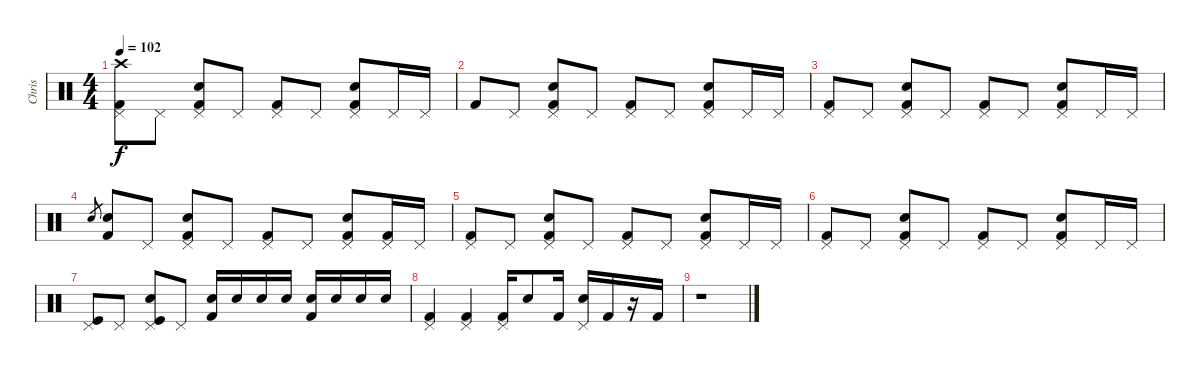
\track ("Chris" "Chris") {instrument percussion}
\staff {score}
\articulation defaults
\ts (4 4)
\tempo 102
\clef neutral
\ks c
("Crash high (hit)" "Pedal Hi-Hat (hit)" "Kick (hit) 2").8{dy f} "Pedal Hi-Hat (hit)".8 ("Pedal Hi-Hat (hit)" "Snare (hit) 2" "Kick (hit) 2").8 "Pedal Hi-Hat (hit)".8 ("Pedal Hi-Hat (hit)" "Kick (hit) 2").8 "Pedal Hi-Hat (hit)".8 ("Pedal Hi-Hat (hit)" "Snare (hit) 2" "Kick (hit) 2").8 "Pedal Hi-Hat (hit)".16 "Pedal Hi-Hat (hit)".16 |
"Kick (hit) 2".8 "Pedal Hi-Hat (hit)".8 ("Pedal Hi-Hat (hit)" "Snare (hit) 2" "Kick (hit) 2").8 "Pedal Hi-Hat (hit)".8 ("Pedal Hi-Hat (hit)" "Kick (hit) 2").8 "Pedal Hi-Hat (hit)".8 ("Pedal Hi-Hat (hit)" "Snare (hit) 2" "Kick (hit) 2").8 "Pedal Hi-Hat (hit)".16 "Pedal Hi-Hat (hit)".16 |
("Pedal Hi-Hat (hit)" "Kick (hit) 2").8 "Pedal Hi-Hat (hit)".8 ("Pedal Hi-Hat (hit)" "Snare (hit) 2" "Kick (hit) 2").8 "Pedal Hi-Hat (hit)".8 ("Pedal Hi-Hat (hit)" "Kick (hit) 2").8 "Pedal Hi-Hat (hit)".8 ("Pedal Hi-Hat (hit)" "Snare (hit) 2" "Kick (hit) 2").8 "Pedal Hi-Hat (hit)".16 "Pedal Hi-Hat (hit)".16 |
"Snare (hit) 2".8{gr} ("Snare (hit) 2" "Kick (hit) 2").8 "Pedal Hi-Hat (hit)".8 ("Pedal Hi-Hat (hit)" "Snare (hit) 2" "Kick (hit) 2").8 "Pedal Hi-Hat (hit)".8 ("Pedal Hi-Hat (hit)" "Kick (hit) 2").8 "Pedal Hi-Hat (hit)".8 ("Pedal Hi-Hat (hit)" "Snare (hit) 2" "Kick (hit) 2").8 ("Pedal Hi-Hat (hit)" "Kick (hit) 2").16 "Pedal Hi-Hat (hit)".16 |
("Pedal Hi-Hat (hit)" "Kick (hit) 2").8 "Pedal Hi-Hat (hit)".8 ("Pedal Hi-Hat (hit)" "Snare (hit) 2" "Kick (hit) 2").8 "Pedal Hi-Hat (hit)".8 ("Pedal Hi-Hat (hit)" "Kick (hit) 2").8 "Pedal Hi-Hat (hit)".8 ("Pedal Hi-Hat (hit)" "Snare (hit) 2" "Kick (hit) 2").8 "Pedal Hi-Hat (hit)".16 "Pedal Hi-Hat (hit)".16 |
("Pedal Hi-Hat (hit)" "Kick (hit) 2").8 "Pedal Hi-Hat (hit)".8 ("Pedal Hi-Hat (hit)" "Snare (hit) 2" "Kick (hit) 2").8 "Pedal Hi-Hat (hit)".8 ("Pedal Hi-Hat (hit)" "Kick (hit) 2").8 "Pedal Hi-Hat (hit)".8 ("Pedal Hi-Hat (hit)" "Snare (hit) 2" "Kick (hit) 2").8 "Pedal Hi-Hat (hit)".16 "Pedal Hi-Hat (hit)".16 |
("Pedal Hi-Hat (hit)" "Kick (hit)").8 "Pedal Hi-Hat (hit)".8 ("Pedal Hi-Hat (hit)" "Snare (hit) 2" "Kick (hit)").8 "Pedal Hi-Hat (hit)".8 ("Snare (hit) 2" "Kick (hit) 2").16 "Snare (hit) 2".16 "Snare (hit) 2".16 "Snare (hit) 2".16 ("Snare (hit) 2" "Kick (hit) 2").16 "Snare (hit) 2".16 "Snare (hit) 2".16 "Snare (hit) 2".16 |
("Pedal Hi-Hat (hit)" "Kick (hit) 2").4 ("Pedal Hi-Hat (hit)" "Kick (hit) 2").4 ("Pedal Hi-Hat (hit)" "Kick (hit) 2").16 "Snare (hit) 2".8 "Kick (hit) 2".16 ("Pedal Hi-Hat (hit)" "Snare (hit) 2").16 "Kick (hit) 2".16 r.16 "Kick (hit) 2".16 |
r.1
